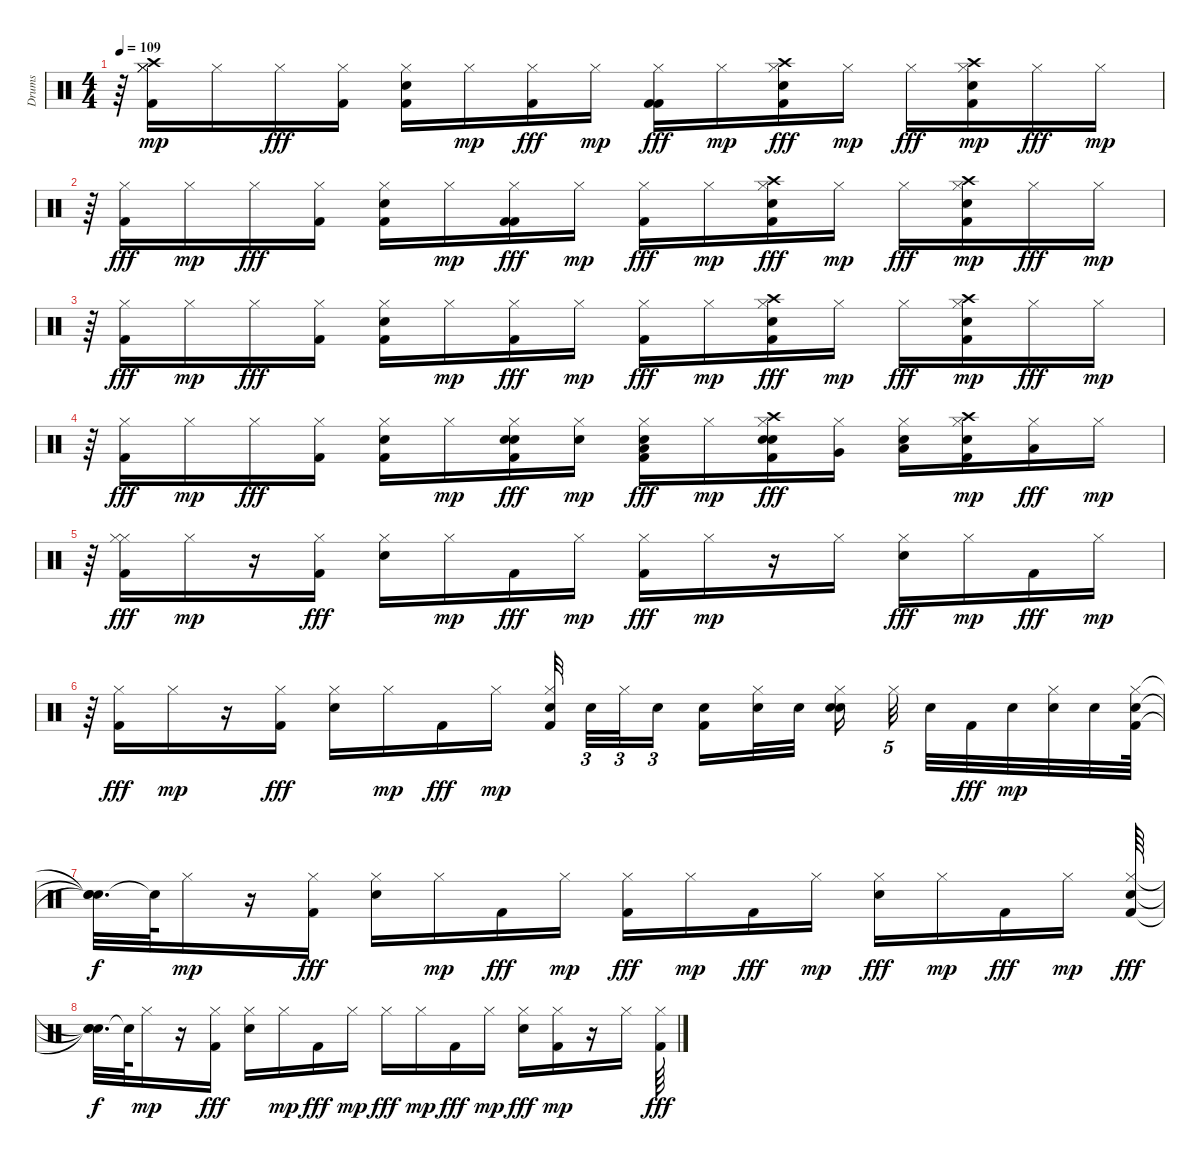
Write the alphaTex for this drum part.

\track ("Drums" "Drums") {instrument percussion}
\staff {score}
\articulation defaults
\ts (4 4)
\tempo 109
\clef neutral
\ks c
r.64{dy fff} ("Crash high (hit)" "Kick (hit) 2" "Hi-Hat (closed)" "Hi-Hat (closed)" "Hi-Hat (closed)").16{dy mp balance 6} "Hi-Hat (closed)".16{balance 7} "Hi-Hat (closed)".16{dy fff balance 8} ("Hi-Hat (closed)" "Kick (hit) 2").16 ("Snare (hit) 2" "Kick (hit) 2" "Hi-Hat (closed)").16 "Hi-Hat (closed)".16{dy mp} ("Kick (hit) 2" "Hi-Hat (closed)").16{dy fff} "Hi-Hat (closed)".16{dy mp} ("Kick (hit) 2" "Kick (hit) 2" "Hi-Hat (closed)").16{dy fff} "Hi-Hat (closed)".16{dy mp} ("Crash high (hit)" "Snare (hit) 2" "Kick (hit) 2" "Hi-Hat (closed)").16{dy fff} "Hi-Hat (closed)".16{dy mp} "Hi-Hat (closed)".16{dy fff} ("Crash high (hit)" "Snare (hit) 2" "Kick (hit) 2" "Hi-Hat (closed)").16{dy mp} "Hi-Hat (closed)".16{dy fff} "Hi-Hat (closed)".16{dy mp} |
r.64 ("Kick (hit) 2" "Hi-Hat (closed)").16{dy fff} "Hi-Hat (closed)".16{dy mp} "Hi-Hat (closed)".16{dy fff} ("Hi-Hat (closed)" "Kick (hit) 2").16 ("Snare (hit) 2" "Kick (hit) 2" "Hi-Hat (closed)").16 "Hi-Hat (closed)".16{dy mp} ("Kick (hit) 2" "Kick (hit) 2" "Hi-Hat (closed)").16{dy fff} "Hi-Hat (closed)".16{dy mp} ("Kick (hit) 2" "Hi-Hat (closed)").16{dy fff} "Hi-Hat (closed)".16{dy mp} ("Hi-Hat (closed)" "Crash high (hit)" "Snare (hit) 2" "Kick (hit) 2").16{dy fff} "Hi-Hat (closed)".16{dy mp} "Hi-Hat (closed)".16{dy fff} ("Kick (hit) 2" "Crash high (hit)" "Snare (hit) 2" "Hi-Hat (closed)").16{dy mp} "Hi-Hat (closed)".16{dy fff} "Hi-Hat (closed)".16{dy mp} |
r.64 ("Kick (hit) 2" "Hi-Hat (closed)").16{dy fff} "Hi-Hat (closed)".16{dy mp} "Hi-Hat (closed)".16{dy fff} ("Hi-Hat (closed)" "Kick (hit) 2").16 ("Hi-Hat (closed)" "Snare (hit) 2" "Kick (hit) 2").16 "Hi-Hat (closed)".16{dy mp} ("Kick (hit) 2" "Hi-Hat (closed)").16{dy fff} "Hi-Hat (closed)".16{dy mp} ("Hi-Hat (closed)" "Kick (hit) 2").16{dy fff} "Hi-Hat (closed)".16{dy mp} ("Hi-Hat (closed)" "Crash high (hit)" "Kick (hit) 2" "Snare (hit) 2").16{dy fff} "Hi-Hat (closed)".16{dy mp} "Hi-Hat (closed)".16{dy fff} ("Crash high (hit)" "Kick (hit) 2" "Snare (hit) 2" "Hi-Hat (closed)").16{dy mp} "Hi-Hat (closed)".16{dy fff} "Hi-Hat (closed)".16{dy mp} |
r.64 ("Kick (hit) 2" "Hi-Hat (closed)").16{dy fff} "Hi-Hat (closed)".16{dy mp} "Hi-Hat (closed)".16{dy fff} ("Hi-Hat (closed)" "Kick (hit) 2").16 ("Hi-Hat (closed)" "Snare (hit) 2" "Kick (hit) 2").16 "Hi-Hat (closed)".16{dy mp} ("Hi-Hat (closed)" "Kick (hit) 2" "Snare (hit) 2" "Snare (hit) 2").16{dy fff} ("Hi-Hat (closed)" "Snare (hit) 2").16{dy mp} ("Snare (hit) 2" "Hi-Hat (closed)" "Kick (hit) 2" "Low Tom (hit)").16{dy fff} "Hi-Hat (closed)".16{dy mp} ("Snare (hit) 2" "Hi-Hat (closed)" "Crash high (hit)" "Snare (hit) 2" "Kick (hit) 2").16{dy fff} ("Hi-Hat (closed)" "Very Low Tom (hit)").16 ("Snare (hit) 2" "Hi-Hat (closed)" "Low Floor Tom (hit)").16 ("Kick (hit) 2" "Crash high (hit)" "Snare (hit) 2" "Hi-Hat (closed)").16{dy mp} ("Hi-Hat (closed)" "Low Floor Tom (hit)").16{dy fff} "Hi-Hat (closed)".16{dy mp} |
r.64 ("Kick (hit) 2" "Hi-Hat (closed)" "Hi-Hat (closed)").16{dy fff} "Hi-Hat (closed)".16{dy mp} r.16 ("Hi-Hat (closed)" "Kick (hit) 2").16{dy fff} ("Hi-Hat (closed)" "Snare (hit) 2").16 "Hi-Hat (closed)".16{dy mp} "Kick (hit) 2".16{dy fff} "Hi-Hat (closed)".16{dy mp} ("Hi-Hat (closed)" "Kick (hit) 2").16{dy fff} "Hi-Hat (closed)".16{dy mp} r.16 "Hi-Hat (closed)".16 ("Snare (hit) 2" "Hi-Hat (closed)").16{dy fff} "Hi-Hat (closed)".16{dy mp} "Kick (hit) 2".16{dy fff} "Hi-Hat (closed)".16{dy mp} |
r.64 ("Hi-Hat (closed)" "Kick (hit) 2").16{dy fff} "Hi-Hat (closed)".16{dy mp} r.16 ("Hi-Hat (closed)" "Kick (hit) 2").16{dy fff} ("Hi-Hat (closed)" "Snare (hit) 2").16 "Hi-Hat (closed)".16{dy mp} "Kick (hit) 2".16{dy fff} "Hi-Hat (closed)".16{dy mp} ("Hi-Hat (closed)" "Kick (hit) 2" "Snare (hit) 2").32{beam splitsecondary} "Snare (hit) 2".32{tu (3 2)} "Hi-Hat (closed)".32{tu (3 2)} "Snare (hit) 2".16{tu (3 2) beam splitsecondary} ("Kick (hit) 2" "Snare (hit) 2").16 ("Snare (hit) 2" "Hi-Hat (closed)").32 "Snare (hit) 2".32 ("Hi-Hat (closed)" "Snare (hit) 2" "Snare (hit) 2").16{beam splitsecondary} "Hi-Hat (closed)".32{tu (5 4) beam splitsecondary} "Snare (hit) 2".32 "Kick (hit) 2".32{dy fff} "Snare (hit) 2".32{dy mp} ("Snare (hit) 2" "Hi-Hat (closed)").32 "Snare (hit) 2".32 ("Kick (hit) 2" "Hi-Hat (closed)" "Snare (hit) 2").64 |
("Snare (hit)"{t} "Snare (hit)"{t} "Snare (hit)"{t}).32{d dy f} "Snare (hit)"{t}.64 "Hi-Hat (closed)".16{dy mp} r.16 ("Hi-Hat (closed)" "Kick (hit) 2").16{dy fff} ("Hi-Hat (closed)" "Snare (hit) 2").16 "Hi-Hat (closed)".16{dy mp} "Kick (hit) 2".16{dy fff} "Hi-Hat (closed)".16{dy mp} ("Hi-Hat (closed)" "Kick (hit) 2").16{dy fff} "Hi-Hat (closed)".16{dy mp} "Kick (hit) 2".16{dy fff} "Hi-Hat (closed)".16{dy mp} ("Hi-Hat (closed)" "Snare (hit) 2").16{dy fff} "Hi-Hat (closed)".16{dy mp} "Kick (hit) 2".16{dy fff} "Hi-Hat (closed)".16{dy mp} ("Hi-Hat (closed)" "Kick (hit) 2" "Metronome (bell)").64{dy fff} |
("Snare (hit)"{t} "Snare (hit)"{t} "Snare (hit)"{t}).32{d dy f} "Snare (hit)"{t}.64 "Hi-Hat (closed)".16{dy mp} r.16 ("Hi-Hat (closed)" "Kick (hit) 2").16{dy fff} ("Hi-Hat (closed)" "Snare (hit) 2").16 "Hi-Hat (closed)".16{dy mp} "Kick (hit) 2".16{dy fff} "Hi-Hat (closed)".16{dy mp} "Hi-Hat (closed)".16{dy fff} "Hi-Hat (closed)".16{dy mp} "Kick (hit) 2".16{dy fff} "Hi-Hat (closed)".16{dy mp} ("Snare (hit) 2" "Hi-Hat (closed)").16{dy fff} ("Kick (hit) 2" "Hi-Hat (closed)").16{dy mp} r.16 "Hi-Hat (closed)".16 ("Kick (hit) 2" "Hi-Hat (closed)").64{dy fff}
